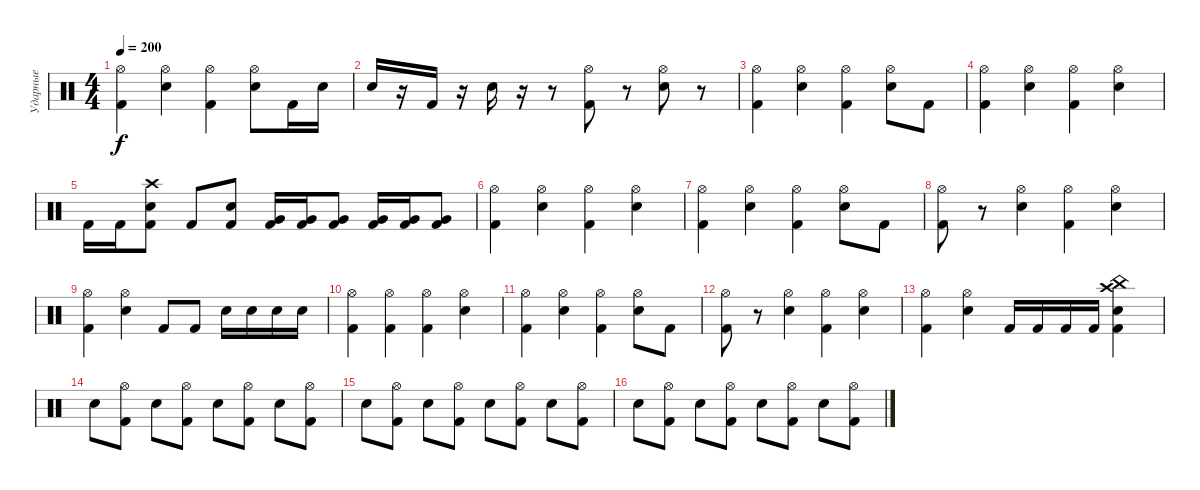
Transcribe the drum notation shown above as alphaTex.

\track ("Ударные" "Ударные") {instrument percussion}
\staff {score}
\articulation defaults
\ts (4 4)
\tempo 200
\clef neutral
\ks c
("Kick (hit) 2" "Hi-Hat (open)").4{dy f} ("Electric Snare (hit)" "Hi-Hat (open)").4 ("Kick (hit) 2" "Hi-Hat (open)").4 ("Electric Snare (hit)" "Hi-Hat (open)").8 "Kick (hit) 2".16 "Electric Snare (hit)".16 |
"Electric Snare (hit)".16 r.16 "Kick (hit) 2".16 r.16 "Electric Snare (hit)".16 r.16 r.8 ("Kick (hit) 2" "Hi-Hat (open)").8 r.8 ("Electric Snare (hit)" "Hi-Hat (open)").8 r.8 |
("Kick (hit) 2" "Hi-Hat (open)").4 ("Electric Snare (hit)" "Hi-Hat (open)").4 ("Kick (hit) 2" "Hi-Hat (open)").4 ("Electric Snare (hit)" "Hi-Hat (open)").8 "Kick (hit) 2".8 |
("Kick (hit) 2" "Hi-Hat (open)").4 ("Electric Snare (hit)" "Hi-Hat (open)").4 ("Kick (hit) 2" "Hi-Hat (open)").4 ("Electric Snare (hit)" "Hi-Hat (open)").4 |
"Kick (hit) 2".16 "Kick (hit) 2".16 ("Electric Snare (hit)" "Kick (hit) 2" "Crash high (hit)").8 "Kick (hit) 2".8 ("Kick (hit) 2" "Electric Snare (hit)").8 ("Very Low Tom (hit)" "Kick (hit) 2").16 ("Very Low Tom (hit)" "Kick (hit) 2").16 ("Very Low Tom (hit)" "Kick (hit) 2").8 ("Very Low Tom (hit)" "Kick (hit) 2").16 ("Very Low Tom (hit)" "Kick (hit) 2").16 ("Very Low Tom (hit)" "Kick (hit) 2").8 |
("Kick (hit) 2" "Hi-Hat (open)").4 ("Electric Snare (hit)" "Hi-Hat (open)").4 ("Kick (hit) 2" "Hi-Hat (open)").4 ("Electric Snare (hit)" "Hi-Hat (open)").4 |
("Kick (hit) 2" "Hi-Hat (open)").4 ("Electric Snare (hit)" "Hi-Hat (open)").4 ("Kick (hit) 2" "Hi-Hat (open)").4 ("Electric Snare (hit)" "Hi-Hat (open)").8 "Kick (hit) 2".8 |
("Kick (hit) 2" "Hi-Hat (open)").8 r.8 ("Electric Snare (hit)" "Hi-Hat (open)").4 ("Kick (hit) 2" "Hi-Hat (open)").4 ("Electric Snare (hit)" "Hi-Hat (open)").4 |
("Kick (hit) 2" "Hi-Hat (open)").4 ("Electric Snare (hit)" "Hi-Hat (open)").4 "Kick (hit) 2".8 "Kick (hit) 2".8 "Electric Snare (hit)".16 "Electric Snare (hit)".16 "Electric Snare (hit)".16 "Electric Snare (hit)".16 |
("Kick (hit) 2" "Hi-Hat (open)").4 ("Kick (hit) 2" "Hi-Hat (open)").4 ("Kick (hit) 2" "Hi-Hat (open)").4 ("Electric Snare (hit)" "Hi-Hat (open)").4 |
("Kick (hit) 2" "Hi-Hat (open)").4 ("Electric Snare (hit)" "Hi-Hat (open)").4 ("Kick (hit) 2" "Hi-Hat (open)").4 ("Electric Snare (hit)" "Hi-Hat (open)").8 "Kick (hit) 2".8 |
("Kick (hit) 2" "Hi-Hat (open)").8 r.8 ("Electric Snare (hit)" "Hi-Hat (open)").4 ("Kick (hit) 2" "Hi-Hat (open)").4 ("Electric Snare (hit)" "Hi-Hat (open)").4 |
("Kick (hit) 2" "Hi-Hat (open)").4 ("Electric Snare (hit)" "Hi-Hat (open)").4 "Kick (hit) 2".16 "Kick (hit) 2".16 "Kick (hit) 2".16 "Kick (hit) 2".16 ("Kick (hit) 2" "Electric Snare (hit)" "Crash high (hit)" "China (hit)").4 |
"Electric Snare (hit)".8 ("Kick (hit) 2" "Hi-Hat (open)").8 "Electric Snare (hit)".8 ("Kick (hit) 2" "Hi-Hat (open)").8 "Electric Snare (hit)".8 ("Kick (hit) 2" "Hi-Hat (open)").8 "Electric Snare (hit)".8 ("Kick (hit) 2" "Hi-Hat (open)").8 |
"Electric Snare (hit)".8 ("Kick (hit) 2" "Hi-Hat (open)").8 "Electric Snare (hit)".8 ("Kick (hit) 2" "Hi-Hat (open)").8 "Electric Snare (hit)".8 ("Kick (hit) 2" "Hi-Hat (open)").8 "Electric Snare (hit)".8 ("Kick (hit) 2" "Hi-Hat (open)").8 |
"Electric Snare (hit)".8 ("Kick (hit) 2" "Hi-Hat (open)").8 "Electric Snare (hit)".8 ("Kick (hit) 2" "Hi-Hat (open)").8 "Electric Snare (hit)".8 ("Kick (hit) 2" "Hi-Hat (open)").8 "Electric Snare (hit)".8 ("Kick (hit) 2" "Hi-Hat (open)").8
